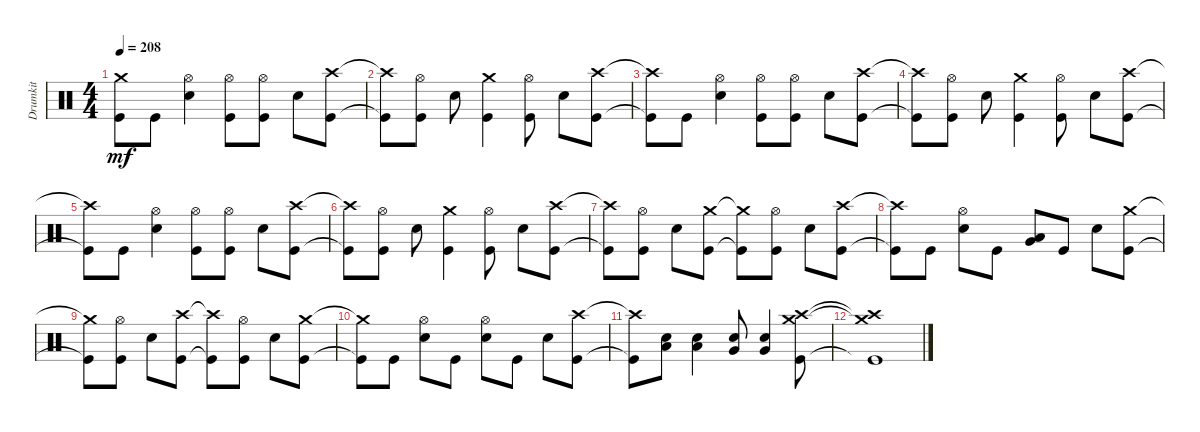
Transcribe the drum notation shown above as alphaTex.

\track ("Drumkit" "Drumkit") {instrument percussion}
\staff {score}
\articulation defaults
\ts (4 4)
\tempo 208
\clef neutral
\ks c
("Kick (hit)"{t} "Crash medium (hit)"{t}).8{dy mf} "Kick (hit)".8 ("Snare (hit) 2" "Hi-Hat (open)").4 ("Kick (hit)" "Hi-Hat (open)").8 ("Kick (hit)" "Hi-Hat (open)").8 "Snare (hit) 2".8 ("Kick (hit)" "Crash high (hit)").8 |
("Kick (hit)"{t} "Crash high (hit)"{t}).8 ("Kick (hit)" "Hi-Hat (open)").8 "Snare (hit) 2".8 ("Kick (hit)" "Crash medium (hit)").4 ("Kick (hit)" "Hi-Hat (open)").8 "Snare (hit) 2".8 ("Kick (hit)" "Crash high (hit)").8 |
("Kick (hit)"{t} "Crash high (hit)"{t}).8 "Kick (hit)".8 ("Snare (hit) 2" "Hi-Hat (open)").4 ("Kick (hit)" "Hi-Hat (open)").8 ("Kick (hit)" "Hi-Hat (open)").8 "Snare (hit) 2".8 ("Kick (hit)" "Crash high (hit)").8 |
("Kick (hit)"{t} "Crash high (hit)"{t}).8 ("Kick (hit)" "Hi-Hat (open)").8 "Snare (hit) 2".8 ("Kick (hit)" "Crash medium (hit)").4 ("Kick (hit)" "Hi-Hat (open)").8 "Snare (hit) 2".8 ("Kick (hit)" "Crash high (hit)").8 |
("Kick (hit)"{t} "Crash high (hit)"{t}).8 "Kick (hit)".8 ("Snare (hit) 2" "Hi-Hat (open)").4 ("Kick (hit)" "Hi-Hat (open)").8 ("Kick (hit)" "Hi-Hat (open)").8 "Snare (hit) 2".8 ("Kick (hit)" "Crash high (hit)").8 |
("Kick (hit)"{t} "Crash high (hit)"{t}).8 ("Kick (hit)" "Hi-Hat (open)").8 "Snare (hit) 2".8 ("Kick (hit)" "Crash medium (hit)").4 ("Kick (hit)" "Hi-Hat (open)").8 "Snare (hit) 2".8 ("Kick (hit)" "Crash high (hit)").8 |
("Kick (hit)"{t} "Crash high (hit)"{t}).8 ("Hi-Hat (open)" "Kick (hit)").8 "Snare (hit) 2".8 ("Kick (hit)" "Crash medium (hit)").8 ("Kick (hit)"{t} "Crash medium (hit)"{t}).8 ("Kick (hit)" "Hi-Hat (open)").8 "Snare (hit) 2".8 ("Kick (hit)" "Crash high (hit)").8 |
("Kick (hit)"{t} "Crash high (hit)"{t}).8 "Kick (hit)".8 ("Snare (hit) 2" "Hi-Hat (open)").8 "Kick (hit)".8 ("Low Tom (hit)" "Very Low Tom (hit)").8 "Kick (hit)".8 "Snare (hit) 2".8 ("Kick (hit)" "Crash medium (hit)").8 |
("Kick (hit)"{t} "Crash medium (hit)"{t}).8 ("Kick (hit)" "Hi-Hat (open)").8 "Snare (hit) 2".8 ("Kick (hit)" "Crash high (hit)").8 ("Kick (hit)"{t} "Crash high (hit)"{t}).8 ("Kick (hit)" "Hi-Hat (open)").8 "Snare (hit) 2".8 ("Kick (hit)" "Crash medium (hit)").8 |
("Kick (hit)"{t} "Crash medium (hit)"{t}).8 "Kick (hit)".8 ("Snare (hit) 2" "Hi-Hat (open)").8 "Kick (hit)".8 ("Snare (hit) 2" "Hi-Hat (open)").8 "Kick (hit)".8 "Snare (hit) 2".8 ("Kick (hit)" "Crash high (hit)").8 |
("Kick (hit)"{t} "Crash high (hit)"{t}).8 ("Snare (hit) 2" "Low Floor Tom (hit)").8 ("Low Floor Tom (hit)" "Snare (hit) 2").4 ("Very Low Tom (hit)" "Snare (hit) 2").8 ("Snare (hit) 2" "Very Low Tom (hit)").4 ("Kick (hit)" "Crash high (hit)" "Crash medium (hit)").8 |
("Kick (hit)"{t} "Crash high (hit)"{t} "Crash medium (hit)"{t}).1
